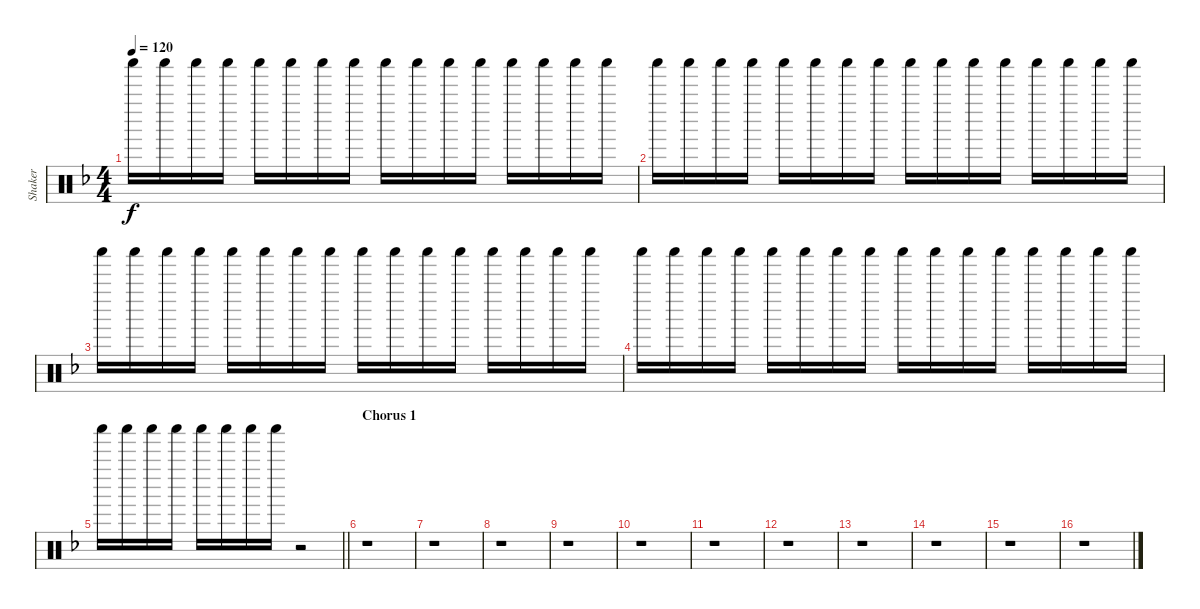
\track ("Shaker" "Shaker") {instrument percussion}
\staff {score}
\articulation defaults
\ts (4 4)
\tempo 120
\clef neutral
\ks f "Shaker (hit)".16{dy f} "Shaker (hit)".16 "Shaker (hit)".16 "Shaker (hit)".16 "Shaker (hit)".16 "Shaker (hit)".16 "Shaker (hit)".16 "Shaker (hit)".16 "Shaker (hit)".16 "Shaker (hit)".16 "Shaker (hit)".16 "Shaker (hit)".16 "Shaker (hit)".16 "Shaker (hit)".16 "Shaker (hit)".16 "Shaker (hit)".16
|
"Shaker (hit)".16 "Shaker (hit)".16 "Shaker (hit)".16 "Shaker (hit)".16 "Shaker (hit)".16 "Shaker (hit)".16 "Shaker (hit)".16 "Shaker (hit)".16 "Shaker (hit)".16 "Shaker (hit)".16 "Shaker (hit)".16 "Shaker (hit)".16 "Shaker (hit)".16 "Shaker (hit)".16 "Shaker (hit)".16 "Shaker (hit)".16 |
"Shaker (hit)".16 "Shaker (hit)".16 "Shaker (hit)".16 "Shaker (hit)".16 "Shaker (hit)".16 "Shaker (hit)".16 "Shaker (hit)".16 "Shaker (hit)".16 "Shaker (hit)".16 "Shaker (hit)".16 "Shaker (hit)".16 "Shaker (hit)".16 "Shaker (hit)".16 "Shaker (hit)".16 "Shaker (hit)".16 "Shaker (hit)".16 |
"Shaker (hit)".16 "Shaker (hit)".16 "Shaker (hit)".16 "Shaker (hit)".16 "Shaker (hit)".16 "Shaker (hit)".16 "Shaker (hit)".16 "Shaker (hit)".16 "Shaker (hit)".16 "Shaker (hit)".16 "Shaker (hit)".16 "Shaker (hit)".16 "Shaker (hit)".16 "Shaker (hit)".16 "Shaker (hit)".16 "Shaker (hit)".16 |
\barLineRight lightlight "Shaker (hit)".16 "Shaker (hit)".16 "Shaker (hit)".16 "Shaker (hit)".16 "Shaker (hit)".16 "Shaker (hit)".16 "Shaker (hit)".16 "Shaker (hit)".16
r.2 |
\section ("" "Chorus 1")
r.1 |
r.1 |
r.1 |
r.1 |
r.1 |
r.1 |
r.1 |
r.1 |
r.1 |
r.1 |
r.1
